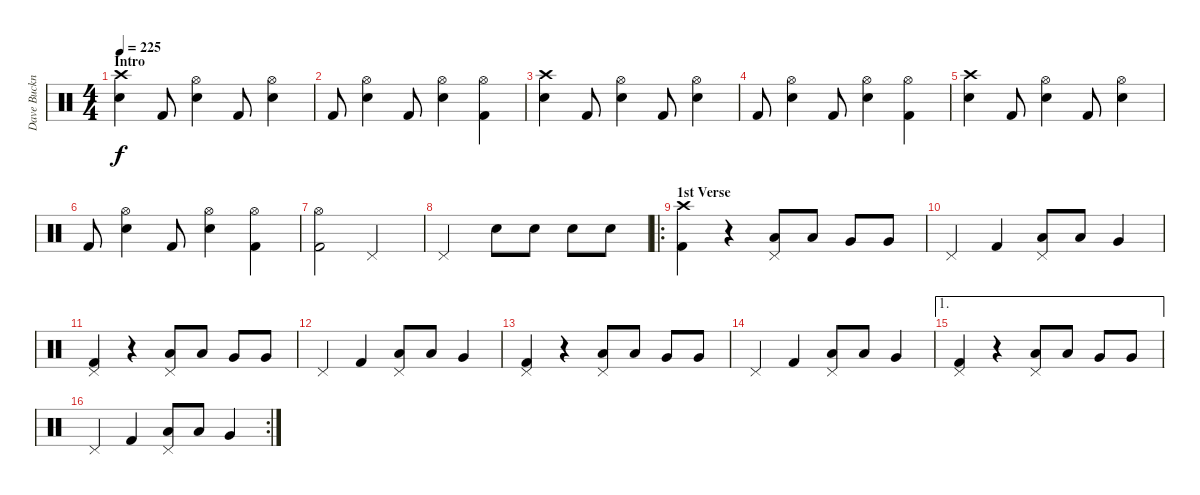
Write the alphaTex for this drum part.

\track ("Dave Buckner" "Dave Buckn") {instrument percussion}
\staff {score}
\articulation defaults
\ts (4 4)
\section ("" "Intro")
\tempo 225
\clef neutral
\ks c
("Crash high (hit)" "Electric Snare (hit)").4{dy f} "Kick (hit) 2".8 ("Hi-Hat (open)" "Electric Snare (hit)").4 "Kick (hit) 2".8 ("Hi-Hat (open)" "Electric Snare (hit)").4 |
"Kick (hit) 2".8 ("Hi-Hat (open)" "Electric Snare (hit)").4 "Kick (hit) 2".8 ("Hi-Hat (open)" "Electric Snare (hit)").4 ("Hi-Hat (open)" "Kick (hit) 2").4 |
("Crash high (hit)" "Electric Snare (hit)").4 "Kick (hit) 2".8 ("Hi-Hat (open)" "Electric Snare (hit)").4 "Kick (hit) 2".8 ("Hi-Hat (open)" "Electric Snare (hit)").4 |
"Kick (hit) 2".8 ("Hi-Hat (open)" "Electric Snare (hit)").4 "Kick (hit) 2".8 ("Hi-Hat (open)" "Electric Snare (hit)").4 ("Hi-Hat (open)" "Kick (hit) 2").4 |
("Crash high (hit)" "Electric Snare (hit)").4 "Kick (hit) 2".8 ("Hi-Hat (open)" "Electric Snare (hit)").4 "Kick (hit) 2".8 ("Hi-Hat (open)" "Electric Snare (hit)").4 |
"Kick (hit) 2".8 ("Hi-Hat (open)" "Electric Snare (hit)").4 "Kick (hit) 2".8 ("Hi-Hat (open)" "Electric Snare (hit)").4 ("Hi-Hat (open)" "Kick (hit) 2").4 |
("Hi-Hat (open)" "Kick (hit) 2").2 "Pedal Hi-Hat (hit)".2 |
"Pedal Hi-Hat (hit)".2 "Electric Snare (hit)".8 "Electric Snare (hit)".8 "Electric Snare (hit)".8 "Electric Snare (hit)".8 |
\ro
\section ("" "1st Verse")
("Crash high (hit)" "Kick (hit) 2").4 r.4 ("Pedal Hi-Hat (hit)" "Low Tom (hit)").8 "Low Tom (hit)".8 "Very Low Tom (hit)".8 "Very Low Tom (hit)".8 |
"Pedal Hi-Hat (hit)".4 "Kick (hit) 2".4 ("Pedal Hi-Hat (hit)" "Low Tom (hit)").8 "Low Tom (hit)".8 "Very Low Tom (hit)".4 |
("Pedal Hi-Hat (hit)" "Kick (hit) 2").4 r.4 ("Pedal Hi-Hat (hit)" "Low Tom (hit)").8 "Low Tom (hit)".8 "Very Low Tom (hit)".8 "Very Low Tom (hit)".8 |
"Pedal Hi-Hat (hit)".4 "Kick (hit) 2".4 ("Pedal Hi-Hat (hit)" "Low Tom (hit)").8 "Low Tom (hit)".8 "Very Low Tom (hit)".4 |
("Pedal Hi-Hat (hit)" "Kick (hit) 2").4 r.4 ("Pedal Hi-Hat (hit)" "Low Tom (hit)").8 "Low Tom (hit)".8 "Very Low Tom (hit)".8 "Very Low Tom (hit)".8 |
"Pedal Hi-Hat (hit)".4 "Kick (hit) 2".4 ("Pedal Hi-Hat (hit)" "Low Tom (hit)").8 "Low Tom (hit)".8 "Very Low Tom (hit)".4 |
\ae 1
("Pedal Hi-Hat (hit)" "Kick (hit) 2").4 r.4 ("Pedal Hi-Hat (hit)" "Low Tom (hit)").8 "Low Tom (hit)".8 "Very Low Tom (hit)".8 "Very Low Tom (hit)".8 |
\rc 2 "Pedal Hi-Hat (hit)".4 "Kick (hit) 2".4
("Pedal Hi-Hat (hit)" "Low Tom (hit)").8 "Low Tom (hit)".8 "Very Low Tom (hit)".4
